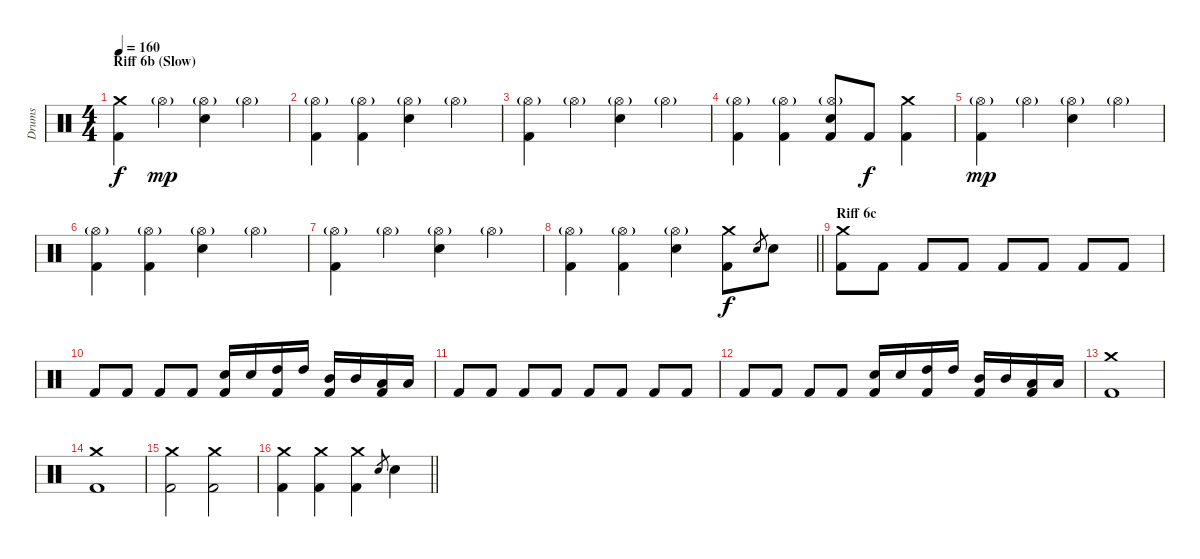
\track ("Drums" "Drums") {instrument percussion}
\staff {score}
\articulation defaults
\ts (4 4)
\section ("" "Riff 6b (Slow)")
\tempo 160
\clef neutral
\ks c
("Crash medium (hit)" "Kick (hit) 2").4{dy f} "Hi-Hat (open)"{g}.4{dy mp} ("Hi-Hat (open)"{g} "Electric Snare (hit)").4 "Hi-Hat (open)"{g}.4 |
("Hi-Hat (open)"{g} "Kick (hit) 2").4 ("Hi-Hat (open)"{g} "Kick (hit) 2").4 ("Hi-Hat (open)"{g} "Electric Snare (hit)").4 "Hi-Hat (open)"{g}.4 |
("Hi-Hat (open)"{g} "Kick (hit) 2").4 "Hi-Hat (open)"{g}.4 ("Hi-Hat (open)"{g} "Electric Snare (hit)").4 "Hi-Hat (open)"{g}.4 |
("Hi-Hat (open)"{g} "Kick (hit) 2").4 ("Hi-Hat (open)"{g} "Kick (hit) 2").4 ("Hi-Hat (open)"{g} "Electric Snare (hit)" "Kick (hit) 2").8 "Kick (hit) 2".8{dy f} ("Crash medium (hit)" "Kick (hit) 2").4 |
("Hi-Hat (open)"{g} "Kick (hit) 2").4{dy mp} "Hi-Hat (open)"{g}.4 ("Hi-Hat (open)"{g} "Electric Snare (hit)").4 "Hi-Hat (open)"{g}.4 |
("Hi-Hat (open)"{g} "Kick (hit) 2").4 ("Hi-Hat (open)"{g} "Kick (hit) 2").4 ("Hi-Hat (open)"{g} "Electric Snare (hit)").4 "Hi-Hat (open)"{g}.4 |
("Hi-Hat (open)"{g} "Kick (hit) 2").4 "Hi-Hat (open)"{g}.4 ("Hi-Hat (open)"{g} "Electric Snare (hit)").4 "Hi-Hat (open)"{g}.4 |
\barLineRight lightlight
("Hi-Hat (open)"{g} "Kick (hit) 2").4 ("Hi-Hat (open)"{g} "Kick (hit) 2").4 ("Hi-Hat (open)"{g} "Electric Snare (hit)").4 ("Crash medium (hit)" "Kick (hit) 2").8{dy f} "Electric Snare (hit)".8{gr} "Electric Snare (hit)".8 |
\section ("" "Riff 6c")
("Crash medium (hit)" "Kick (hit) 2").8 "Kick (hit) 2".8 "Kick (hit) 2".8 "Kick (hit) 2".8 "Kick (hit) 2".8 "Kick (hit) 2".8 "Kick (hit) 2".8 "Kick (hit) 2".8 |
"Kick (hit) 2".8 "Kick (hit) 2".8 "Kick (hit) 2".8 "Kick (hit) 2".8 ("Electric Snare (hit)" "Kick (hit) 2").16 "Electric Snare (hit)".16 ("High Tom (hit)" "Kick (hit) 2").16 "High Tom (hit)".16 ("Mid Tom (hit)" "Kick (hit) 2").16 "Mid Tom (hit)".16 ("Low Tom (hit)" "Kick (hit) 2").16 "Low Tom (hit)".16 |
"Kick (hit) 2".8 "Kick (hit) 2".8 "Kick (hit) 2".8 "Kick (hit) 2".8 "Kick (hit) 2".8 "Kick (hit) 2".8 "Kick (hit) 2".8 "Kick (hit) 2".8 |
"Kick (hit) 2".8 "Kick (hit) 2".8 "Kick (hit) 2".8 "Kick (hit) 2".8 ("Electric Snare (hit)" "Kick (hit) 2").16 "Electric Snare (hit)".16 ("High Tom (hit)" "Kick (hit) 2").16 "High Tom (hit)".16 ("Mid Tom (hit)" "Kick (hit) 2").16 "Mid Tom (hit)".16 ("Low Tom (hit)" "Kick (hit) 2").16 "Low Tom (hit)".16 |
("Crash medium (hit)" "Kick (hit) 2").1 |
("Crash medium (hit)" "Kick (hit) 2").1 |
("Crash medium (hit)" "Kick (hit) 2").2 ("Crash medium (hit)" "Kick (hit) 2").2 |
\barLineRight lightlight
("Crash medium (hit)" "Kick (hit) 2").4 ("Crash medium (hit)" "Kick (hit) 2").4 ("Crash medium (hit)" "Kick (hit) 2").4 "Electric Snare (hit)".8{gr} "Electric Snare (hit)".4
